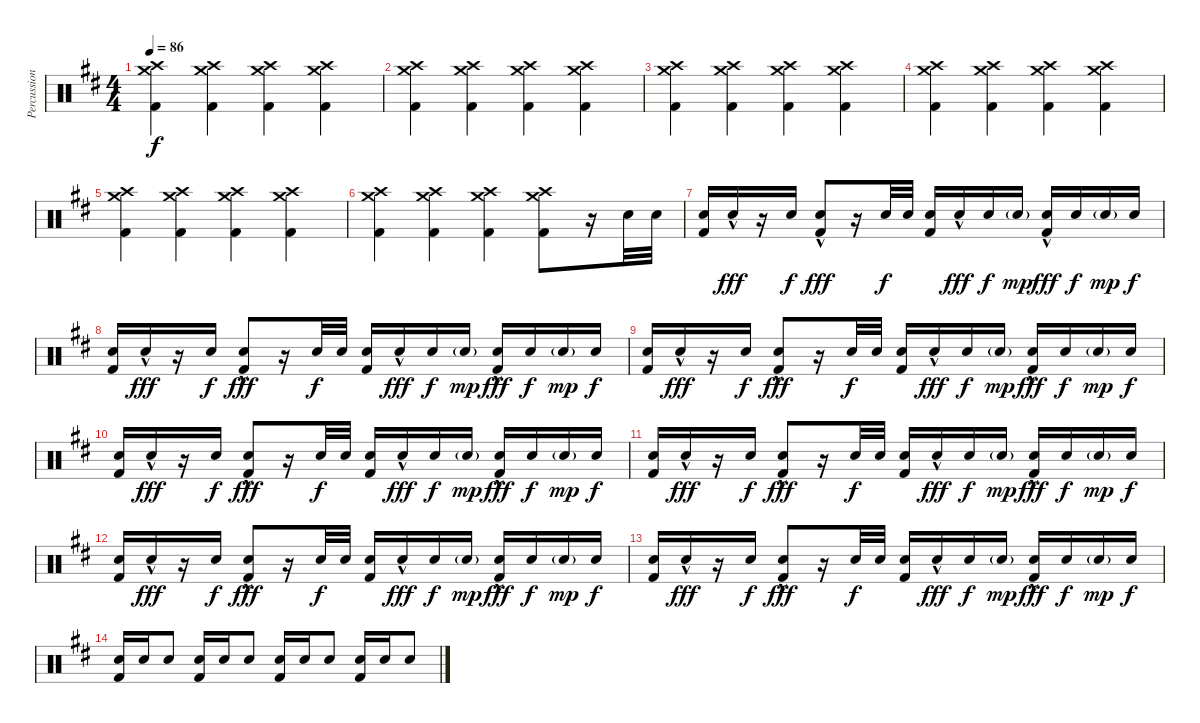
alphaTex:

\track ("Percussion" "Percussion") {instrument percussion}
\staff {score}
\articulation defaults
\ts (4 4)
\tempo 86
\clef neutral
\ks d
("Crash medium (hit)" "Crash high (hit)" "Kick (hit) 2").4{dy f} ("Crash medium (hit)" "Crash high (hit)" "Kick (hit) 2").4 ("Crash medium (hit)" "Crash high (hit)" "Kick (hit) 2").4 ("Crash medium (hit)" "Crash high (hit)" "Kick (hit) 2").4 |
("Crash medium (hit)" "Crash high (hit)" "Kick (hit) 2").4 ("Crash medium (hit)" "Crash high (hit)" "Kick (hit) 2").4 ("Crash medium (hit)" "Crash high (hit)" "Kick (hit) 2").4 ("Crash medium (hit)" "Crash high (hit)" "Kick (hit) 2").4 |
("Crash medium (hit)" "Crash high (hit)" "Kick (hit) 2").4 ("Crash medium (hit)" "Crash high (hit)" "Kick (hit) 2").4 ("Crash medium (hit)" "Crash high (hit)" "Kick (hit) 2").4 ("Crash medium (hit)" "Crash high (hit)" "Kick (hit) 2").4 |
("Crash medium (hit)" "Crash high (hit)" "Kick (hit) 2").4 ("Crash medium (hit)" "Crash high (hit)" "Kick (hit) 2").4 ("Crash medium (hit)" "Crash high (hit)" "Kick (hit) 2").4 ("Crash medium (hit)" "Crash high (hit)" "Kick (hit) 2").4 |
("Crash medium (hit)" "Crash high (hit)" "Kick (hit) 2").4 ("Crash medium (hit)" "Crash high (hit)" "Kick (hit) 2").4 ("Crash medium (hit)" "Crash high (hit)" "Kick (hit) 2").4 ("Crash medium (hit)" "Crash high (hit)" "Kick (hit) 2").4 |
("Crash medium (hit)" "Crash high (hit)" "Kick (hit) 2").4 ("Crash medium (hit)" "Crash high (hit)" "Kick (hit) 2").4 ("Crash medium (hit)" "Crash high (hit)" "Kick (hit) 2").4 ("Crash medium (hit)" "Crash high (hit)" "Kick (hit) 2").8 r.16 "Electric Snare (hit)".32 "Electric Snare (hit)".32 |
("Electric Snare (hit)" "Kick (hit) 2").16 "Electric Snare (hit)"{hac}.16{dy fff} r.16 "Electric Snare (hit)".16{dy f} ("Electric Snare (hit)"{hac} "Kick (hit) 2").8{dy fff} r.16 "Electric Snare (hit)".32{dy f} "Electric Snare (hit)".32 ("Electric Snare (hit)" "Kick (hit) 2").16 "Electric Snare (hit)"{hac}.16{dy fff} "Electric Snare (hit)".16{dy f} "Electric Snare (hit)"{g}.16{dy mp} ("Electric Snare (hit)"{hac} "Kick (hit) 2").16{dy fff} "Electric Snare (hit)".16{dy f} "Electric Snare (hit)"{g}.16{dy mp} "Electric Snare (hit)".16{dy f} |
("Electric Snare (hit)" "Kick (hit) 2").16 "Electric Snare (hit)"{hac}.16{dy fff} r.16 "Electric Snare (hit)".16{dy f} ("Electric Snare (hit)"{hac} "Kick (hit) 2").8{dy fff} r.16 "Electric Snare (hit)".32{dy f} "Electric Snare (hit)".32 ("Electric Snare (hit)" "Kick (hit) 2").16 "Electric Snare (hit)"{hac}.16{dy fff} "Electric Snare (hit)".16{dy f} "Electric Snare (hit)"{g}.16{dy mp} ("Electric Snare (hit)"{hac} "Kick (hit) 2").16{dy fff} "Electric Snare (hit)".16{dy f} "Electric Snare (hit)"{g}.16{dy mp} "Electric Snare (hit)".16{dy f} |
("Electric Snare (hit)" "Kick (hit) 2").16 "Electric Snare (hit)"{hac}.16{dy fff} r.16 "Electric Snare (hit)".16{dy f} ("Electric Snare (hit)"{hac} "Kick (hit) 2").8{dy fff} r.16 "Electric Snare (hit)".32{dy f} "Electric Snare (hit)".32 ("Electric Snare (hit)" "Kick (hit) 2").16 "Electric Snare (hit)"{hac}.16{dy fff} "Electric Snare (hit)".16{dy f} "Electric Snare (hit)"{g}.16{dy mp} ("Electric Snare (hit)"{hac} "Kick (hit) 2").16{dy fff} "Electric Snare (hit)".16{dy f} "Electric Snare (hit)"{g}.16{dy mp} "Electric Snare (hit)".16{dy f} |
("Electric Snare (hit)" "Kick (hit) 2").16 "Electric Snare (hit)"{hac}.16{dy fff} r.16 "Electric Snare (hit)".16{dy f} ("Electric Snare (hit)"{hac} "Kick (hit) 2").8{dy fff} r.16 "Electric Snare (hit)".32{dy f} "Electric Snare (hit)".32 ("Electric Snare (hit)" "Kick (hit) 2").16 "Electric Snare (hit)"{hac}.16{dy fff} "Electric Snare (hit)".16{dy f} "Electric Snare (hit)"{g}.16{dy mp} ("Electric Snare (hit)"{hac} "Kick (hit) 2").16{dy fff} "Electric Snare (hit)".16{dy f} "Electric Snare (hit)"{g}.16{dy mp} "Electric Snare (hit)".16{dy f} |
("Electric Snare (hit)" "Kick (hit) 2").16 "Electric Snare (hit)"{hac}.16{dy fff} r.16 "Electric Snare (hit)".16{dy f} ("Electric Snare (hit)"{hac} "Kick (hit) 2").8{dy fff} r.16 "Electric Snare (hit)".32{dy f} "Electric Snare (hit)".32 ("Electric Snare (hit)" "Kick (hit) 2").16 "Electric Snare (hit)"{hac}.16{dy fff} "Electric Snare (hit)".16{dy f} "Electric Snare (hit)"{g}.16{dy mp} ("Electric Snare (hit)"{hac} "Kick (hit) 2").16{dy fff} "Electric Snare (hit)".16{dy f} "Electric Snare (hit)"{g}.16{dy mp} "Electric Snare (hit)".16{dy f} |
("Electric Snare (hit)" "Kick (hit) 2").16 "Electric Snare (hit)"{hac}.16{dy fff} r.16 "Electric Snare (hit)".16{dy f} ("Electric Snare (hit)"{hac} "Kick (hit) 2").8{dy fff} r.16 "Electric Snare (hit)".32{dy f} "Electric Snare (hit)".32 ("Electric Snare (hit)" "Kick (hit) 2").16 "Electric Snare (hit)"{hac}.16{dy fff} "Electric Snare (hit)".16{dy f} "Electric Snare (hit)"{g}.16{dy mp} ("Electric Snare (hit)"{hac} "Kick (hit) 2").16{dy fff} "Electric Snare (hit)".16{dy f} "Electric Snare (hit)"{g}.16{dy mp} "Electric Snare (hit)".16{dy f} |
("Electric Snare (hit)" "Kick (hit) 2").16 "Electric Snare (hit)"{hac}.16{dy fff} r.16 "Electric Snare (hit)".16{dy f} ("Electric Snare (hit)"{hac} "Kick (hit) 2").8{dy fff} r.16 "Electric Snare (hit)".32{dy f} "Electric Snare (hit)".32 ("Electric Snare (hit)" "Kick (hit) 2").16 "Electric Snare (hit)"{hac}.16{dy fff} "Electric Snare (hit)".16{dy f} "Electric Snare (hit)"{g}.16{dy mp} ("Electric Snare (hit)"{hac} "Kick (hit) 2").16{dy fff} "Electric Snare (hit)".16{dy f} "Electric Snare (hit)"{g}.16{dy mp} "Electric Snare (hit)".16{dy f} |
("Electric Snare (hit)" "Kick (hit) 2").16 "Electric Snare (hit)".16 "Electric Snare (hit)".8 ("Electric Snare (hit)" "Kick (hit) 2").16 "Electric Snare (hit)".16 "Electric Snare (hit)".8 ("Electric Snare (hit)" "Kick (hit) 2").16 "Electric Snare (hit)".16 "Electric Snare (hit)".8 ("Electric Snare (hit)" "Kick (hit) 2").16 "Electric Snare (hit)".16 "Electric Snare (hit)".8
